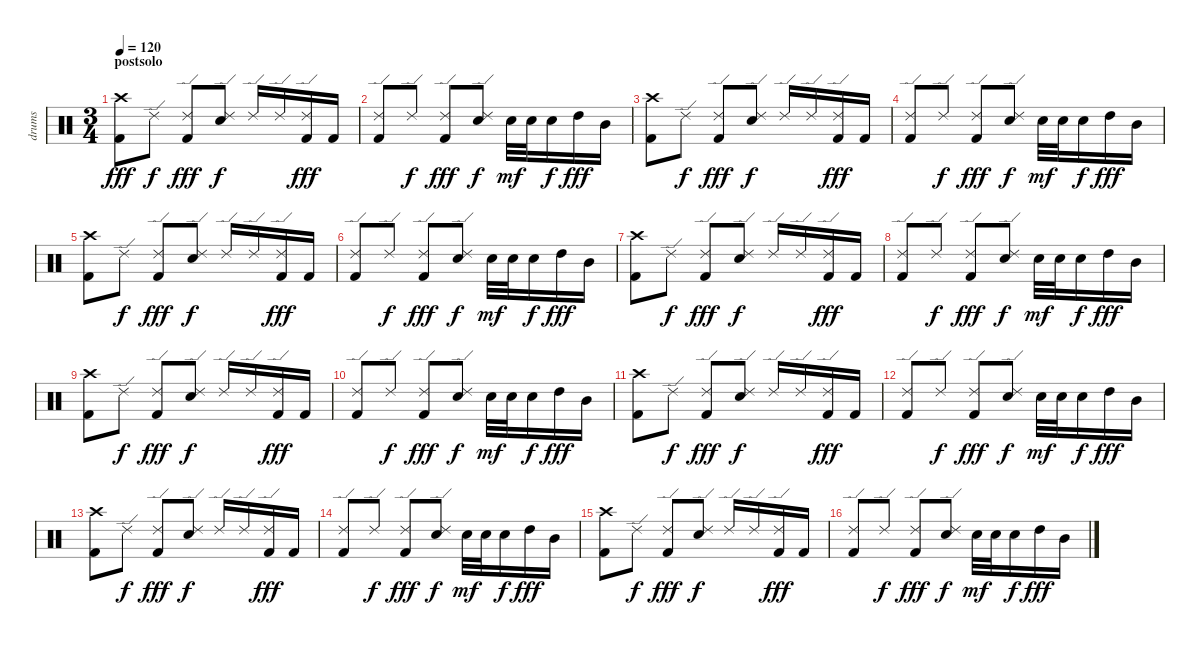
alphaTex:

\track ("drums" "drums") {instrument percussion}
\staff {score}
\articulation defaults
\ts (3 4)
\section ("" "postsolo")
\tempo 120
\clef neutral
\ks c
("Crash high (hit)" "Kick (hit) 2").8{dy fff} "Ride (edge) 2".8{dy f} ("Ride (edge) 2" "Kick (hit) 2").8{dy fff} ("Ride (edge) 2" "Snare (hit) 2").8{dy f} "Ride (edge) 2".16 "Ride (edge) 2".16 ("Ride (edge) 2" "Kick (hit) 2").16{dy fff} "Kick (hit) 2".16 |
("Ride (edge) 2" "Kick (hit) 2").8 "Ride (edge) 2".8{dy f} ("Ride (edge) 2" "Kick (hit) 2").8{dy fff} ("Ride (edge) 2" "Snare (hit) 2").8{dy f} "Snare (hit) 2".32{dy mf} "Snare (hit) 2".32 "Snare (hit) 2".16{dy f} "High Tom (hit)".16{dy fff} "Mid Tom (hit)".16 |
("Crash high (hit)" "Kick (hit) 2").8 "Ride (edge) 2".8{dy f} ("Ride (edge) 2" "Kick (hit) 2").8{dy fff} ("Ride (edge) 2" "Snare (hit) 2").8{dy f} "Ride (edge) 2".16 "Ride (edge) 2".16 ("Ride (edge) 2" "Kick (hit) 2").16{dy fff} "Kick (hit) 2".16 |
("Ride (edge) 2" "Kick (hit) 2").8 "Ride (edge) 2".8{dy f} ("Ride (edge) 2" "Kick (hit) 2").8{dy fff} ("Ride (edge) 2" "Snare (hit) 2").8{dy f} "Snare (hit) 2".32{dy mf} "Snare (hit) 2".32 "Snare (hit) 2".16{dy f} "High Tom (hit)".16{dy fff} "Mid Tom (hit)".16 |
("Crash high (hit)" "Kick (hit) 2").8 "Ride (edge) 2".8{dy f} ("Ride (edge) 2" "Kick (hit) 2").8{dy fff} ("Ride (edge) 2" "Snare (hit) 2").8{dy f} "Ride (edge) 2".16 "Ride (edge) 2".16 ("Ride (edge) 2" "Kick (hit) 2").16{dy fff} "Kick (hit) 2".16 |
("Ride (edge) 2" "Kick (hit) 2").8 "Ride (edge) 2".8{dy f} ("Ride (edge) 2" "Kick (hit) 2").8{dy fff} ("Ride (edge) 2" "Snare (hit) 2").8{dy f} "Snare (hit) 2".32{dy mf} "Snare (hit) 2".32 "Snare (hit) 2".16{dy f} "High Tom (hit)".16{dy fff} "Mid Tom (hit)".16 |
("Crash high (hit)" "Kick (hit) 2").8 "Ride (edge) 2".8{dy f} ("Ride (edge) 2" "Kick (hit) 2").8{dy fff} ("Ride (edge) 2" "Snare (hit) 2").8{dy f} "Ride (edge) 2".16 "Ride (edge) 2".16 ("Ride (edge) 2" "Kick (hit) 2").16{dy fff} "Kick (hit) 2".16 |
("Ride (edge) 2" "Kick (hit) 2").8 "Ride (edge) 2".8{dy f} ("Ride (edge) 2" "Kick (hit) 2").8{dy fff} ("Ride (edge) 2" "Snare (hit) 2").8{dy f} "Snare (hit) 2".32{dy mf} "Snare (hit) 2".32 "Snare (hit) 2".16{dy f} "High Tom (hit)".16{dy fff} "Mid Tom (hit)".16 |
("Crash high (hit)" "Kick (hit) 2").8 "Ride (edge) 2".8{dy f} ("Ride (edge) 2" "Kick (hit) 2").8{dy fff} ("Ride (edge) 2" "Snare (hit) 2").8{dy f} "Ride (edge) 2".16 "Ride (edge) 2".16 ("Ride (edge) 2" "Kick (hit) 2").16{dy fff} "Kick (hit) 2".16 |
("Ride (edge) 2" "Kick (hit) 2").8 "Ride (edge) 2".8{dy f} ("Ride (edge) 2" "Kick (hit) 2").8{dy fff} ("Ride (edge) 2" "Snare (hit) 2").8{dy f} "Snare (hit) 2".32{dy mf} "Snare (hit) 2".32 "Snare (hit) 2".16{dy f} "High Tom (hit)".16{dy fff} "Mid Tom (hit)".16 |
("Crash high (hit)" "Kick (hit) 2").8 "Ride (edge) 2".8{dy f} ("Ride (edge) 2" "Kick (hit) 2").8{dy fff} ("Ride (edge) 2" "Snare (hit) 2").8{dy f} "Ride (edge) 2".16 "Ride (edge) 2".16 ("Ride (edge) 2" "Kick (hit) 2").16{dy fff} "Kick (hit) 2".16 |
("Ride (edge) 2" "Kick (hit) 2").8 "Ride (edge) 2".8{dy f} ("Ride (edge) 2" "Kick (hit) 2").8{dy fff} ("Ride (edge) 2" "Snare (hit) 2").8{dy f} "Snare (hit) 2".32{dy mf} "Snare (hit) 2".32 "Snare (hit) 2".16{dy f} "High Tom (hit)".16{dy fff} "Mid Tom (hit)".16 |
("Crash high (hit)" "Kick (hit) 2").8 "Ride (edge) 2".8{dy f} ("Ride (edge) 2" "Kick (hit) 2").8{dy fff} ("Ride (edge) 2" "Snare (hit) 2").8{dy f} "Ride (edge) 2".16 "Ride (edge) 2".16 ("Ride (edge) 2" "Kick (hit) 2").16{dy fff} "Kick (hit) 2".16 |
("Ride (edge) 2" "Kick (hit) 2").8 "Ride (edge) 2".8{dy f} ("Ride (edge) 2" "Kick (hit) 2").8{dy fff} ("Ride (edge) 2" "Snare (hit) 2").8{dy f} "Snare (hit) 2".32{dy mf} "Snare (hit) 2".32 "Snare (hit) 2".16{dy f} "High Tom (hit)".16{dy fff} "Mid Tom (hit)".16 |
("Crash high (hit)" "Kick (hit) 2").8 "Ride (edge) 2".8{dy f} ("Ride (edge) 2" "Kick (hit) 2").8{dy fff} ("Ride (edge) 2" "Snare (hit) 2").8{dy f} "Ride (edge) 2".16 "Ride (edge) 2".16 ("Ride (edge) 2" "Kick (hit) 2").16{dy fff} "Kick (hit) 2".16 |
("Ride (edge) 2" "Kick (hit) 2").8 "Ride (edge) 2".8{dy f} ("Ride (edge) 2" "Kick (hit) 2").8{dy fff} ("Ride (edge) 2" "Snare (hit) 2").8{dy f} "Snare (hit) 2".32{dy mf} "Snare (hit) 2".32 "Snare (hit) 2".16{dy f} "High Tom (hit)".16{dy fff} "Mid Tom (hit)".16
